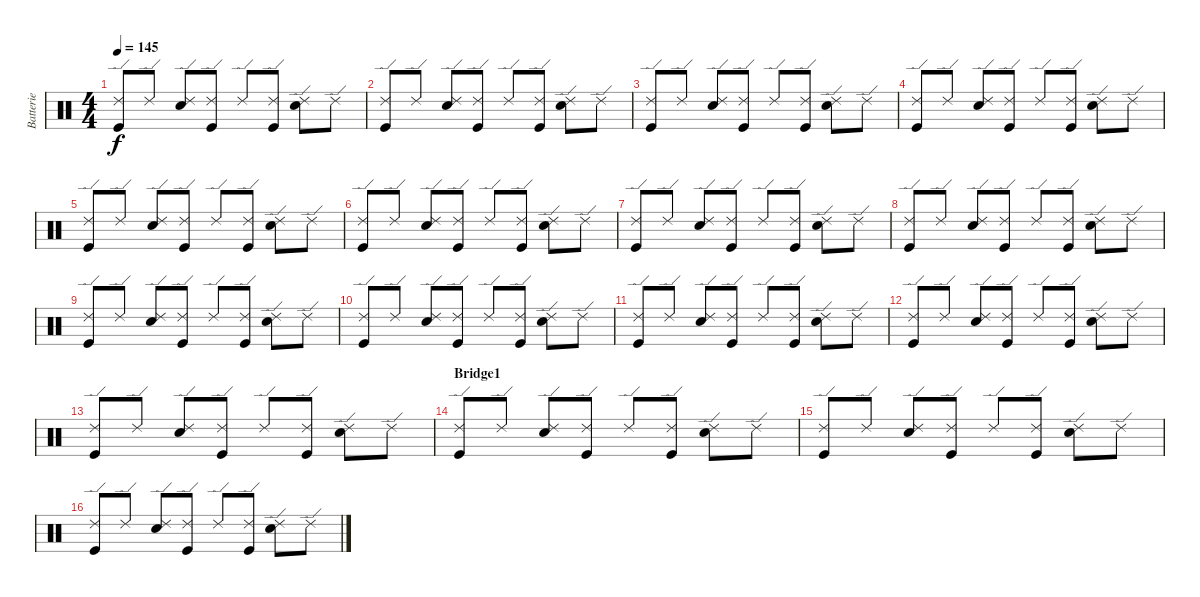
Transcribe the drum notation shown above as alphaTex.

\track ("Batterie" "Batterie") {instrument percussion}
\staff {score}
\articulation defaults
\ts (4 4)
\tempo 145
\clef neutral
\ks c
("Ride (edge) 2" "Kick (hit)").8{dy f} "Ride (edge) 2".8 ("Ride (edge) 2" "Snare (hit) 2").8 ("Ride (edge) 2" "Kick (hit)").8 "Ride (edge) 2".8 ("Ride (edge) 2" "Kick (hit)").8 ("Ride (edge) 2" "Snare (hit) 2").8 "Ride (edge) 2".8 |
("Ride (edge) 2" "Kick (hit)").8 "Ride (edge) 2".8 ("Ride (edge) 2" "Snare (hit) 2").8 ("Ride (edge) 2" "Kick (hit)").8 "Ride (edge) 2".8 ("Ride (edge) 2" "Kick (hit)").8 ("Ride (edge) 2" "Snare (hit) 2").8 "Ride (edge) 2".8 |
("Ride (edge) 2" "Kick (hit)").8 "Ride (edge) 2".8 ("Ride (edge) 2" "Snare (hit) 2").8 ("Ride (edge) 2" "Kick (hit)").8 "Ride (edge) 2".8 ("Ride (edge) 2" "Kick (hit)").8 ("Ride (edge) 2" "Snare (hit) 2").8 "Ride (edge) 2".8 |
("Ride (edge) 2" "Kick (hit)").8 "Ride (edge) 2".8 ("Ride (edge) 2" "Snare (hit) 2").8 ("Ride (edge) 2" "Kick (hit)").8 "Ride (edge) 2".8 ("Ride (edge) 2" "Kick (hit)").8 ("Ride (edge) 2" "Snare (hit) 2").8 "Ride (edge) 2".8 |
("Ride (edge) 2" "Kick (hit)").8 "Ride (edge) 2".8 ("Ride (edge) 2" "Snare (hit) 2").8 ("Ride (edge) 2" "Kick (hit)").8 "Ride (edge) 2".8 ("Ride (edge) 2" "Kick (hit)").8 ("Ride (edge) 2" "Snare (hit) 2").8 "Ride (edge) 2".8 |
("Ride (edge) 2" "Kick (hit)").8 "Ride (edge) 2".8 ("Ride (edge) 2" "Snare (hit) 2").8 ("Ride (edge) 2" "Kick (hit)").8 "Ride (edge) 2".8 ("Ride (edge) 2" "Kick (hit)").8 ("Ride (edge) 2" "Snare (hit) 2").8 "Ride (edge) 2".8 |
("Ride (edge) 2" "Kick (hit)").8 "Ride (edge) 2".8 ("Ride (edge) 2" "Snare (hit) 2").8 ("Ride (edge) 2" "Kick (hit)").8 "Ride (edge) 2".8 ("Ride (edge) 2" "Kick (hit)").8 ("Ride (edge) 2" "Snare (hit) 2").8 "Ride (edge) 2".8 |
("Ride (edge) 2" "Kick (hit)").8 "Ride (edge) 2".8 ("Ride (edge) 2" "Snare (hit) 2").8 ("Ride (edge) 2" "Kick (hit)").8 "Ride (edge) 2".8 ("Ride (edge) 2" "Kick (hit)").8 ("Ride (edge) 2" "Snare (hit) 2").8 "Ride (edge) 2".8 |
("Ride (edge) 2" "Kick (hit)").8 "Ride (edge) 2".8 ("Ride (edge) 2" "Snare (hit) 2").8 ("Ride (edge) 2" "Kick (hit)").8 "Ride (edge) 2".8 ("Ride (edge) 2" "Kick (hit)").8 ("Ride (edge) 2" "Snare (hit) 2").8 "Ride (edge) 2".8 |
("Ride (edge) 2" "Kick (hit)").8 "Ride (edge) 2".8 ("Ride (edge) 2" "Snare (hit) 2").8 ("Ride (edge) 2" "Kick (hit)").8 "Ride (edge) 2".8 ("Ride (edge) 2" "Kick (hit)").8 ("Ride (edge) 2" "Snare (hit) 2").8 "Ride (edge) 2".8 |
("Ride (edge) 2" "Kick (hit)").8 "Ride (edge) 2".8 ("Ride (edge) 2" "Snare (hit) 2").8 ("Ride (edge) 2" "Kick (hit)").8 "Ride (edge) 2".8 ("Ride (edge) 2" "Kick (hit)").8 ("Ride (edge) 2" "Snare (hit) 2").8 "Ride (edge) 2".8 |
("Ride (edge) 2" "Kick (hit)").8 "Ride (edge) 2".8 ("Ride (edge) 2" "Snare (hit) 2").8 ("Ride (edge) 2" "Kick (hit)").8 "Ride (edge) 2".8 ("Ride (edge) 2" "Kick (hit)").8 ("Ride (edge) 2" "Snare (hit) 2").8 "Ride (edge) 2".8 |
("Ride (edge) 2" "Kick (hit)").8 "Ride (edge) 2".8 ("Ride (edge) 2" "Snare (hit) 2").8 ("Ride (edge) 2" "Kick (hit)").8 "Ride (edge) 2".8 ("Ride (edge) 2" "Kick (hit)").8 ("Ride (edge) 2" "Snare (hit) 2").8 "Ride (edge) 2".8 |
\section ("" "Bridge1")
("Ride (edge) 2" "Kick (hit)").8 "Ride (edge) 2".8 ("Ride (edge) 2" "Snare (hit) 2").8 ("Ride (edge) 2" "Kick (hit)").8 "Ride (edge) 2".8 ("Ride (edge) 2" "Kick (hit)").8 ("Ride (edge) 2" "Snare (hit) 2").8 "Ride (edge) 2".8 |
("Ride (edge) 2" "Kick (hit)").8 "Ride (edge) 2".8 ("Ride (edge) 2" "Snare (hit) 2").8 ("Ride (edge) 2" "Kick (hit)").8 "Ride (edge) 2".8 ("Ride (edge) 2" "Kick (hit)").8 ("Ride (edge) 2" "Snare (hit) 2").8 "Ride (edge) 2".8 |
("Ride (edge) 2" "Kick (hit)").8 "Ride (edge) 2".8 ("Ride (edge) 2" "Snare (hit) 2").8 ("Ride (edge) 2" "Kick (hit)").8 "Ride (edge) 2".8 ("Ride (edge) 2" "Kick (hit)").8 ("Ride (edge) 2" "Snare (hit) 2").8 "Ride (edge) 2".8
